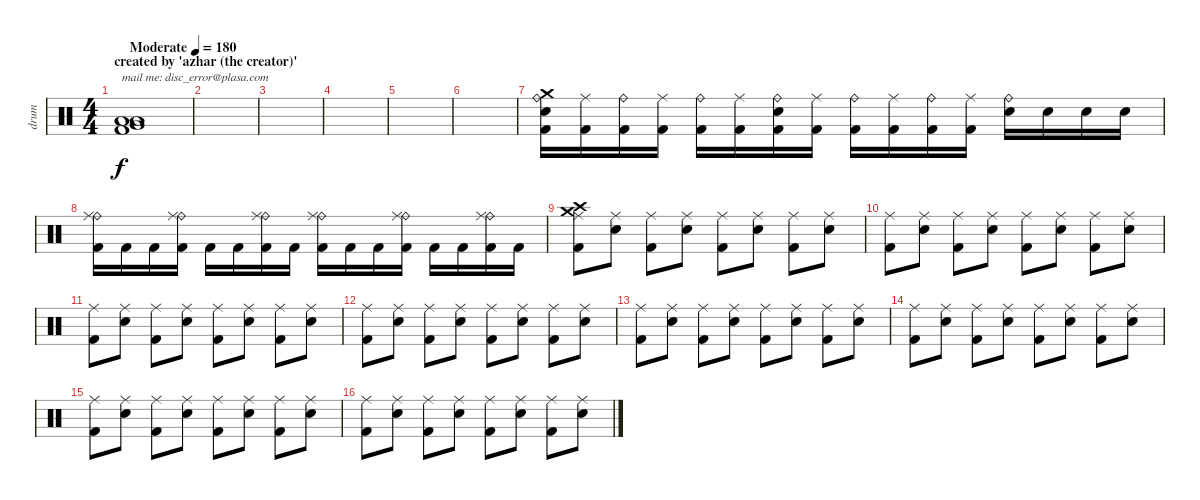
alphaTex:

\track ("drum" "drum") {instrument percussion}
\staff {score}
\articulation defaults
\ts (4 4)
\section ("" "created by 'azhar (the creator)'")
\tempo (180 "Moderate")
\clef neutral
\ks c
("Low Tom (hit)" "Low Floor Tom (hit)" "Very Low Tom (hit)" "Kick (hit) 2").1{txt "mail me: disc_error@plasa.com" dy f} |
|
|
|
|
|
("Crash medium (hit)" "Ride (bell)" "Electric Snare (hit)" "Kick (hit) 2").16 ("Ride (middle)" "Kick (hit) 2").16 ("Ride (bell)" "Kick (hit) 2").16 ("Ride (middle)" "Kick (hit) 2").16 ("Ride (bell)" "Kick (hit) 2").16 ("Ride (middle)" "Kick (hit) 2").16 ("Ride (bell)" "Electric Snare (hit)" "Kick (hit) 2").16 ("Ride (middle)" "Kick (hit) 2").16 ("Ride (bell)" "Kick (hit) 2").16 ("Ride (middle)" "Kick (hit) 2").16 ("Ride (bell)" "Kick (hit) 2").16 ("Ride (middle)" "Kick (hit) 2").16 ("Ride (bell)" "Electric Snare (hit)").16 "Electric Snare (hit)".16 "Electric Snare (hit)".16 "Electric Snare (hit)".16 |
("Ride (bell)" "Ride (middle)" "Kick (hit) 2").16 "Kick (hit) 2".16 "Kick (hit) 2".16 ("Ride (bell)" "Ride (middle)" "Kick (hit) 2").16 "Kick (hit) 2".16 "Kick (hit) 2".16 ("Ride (bell)" "Ride (middle)" "Kick (hit) 2").16 "Kick (hit) 2".16 ("Ride (bell)" "Ride (middle)" "Kick (hit) 2").16 "Kick (hit) 2".16 "Kick (hit) 2".16 ("Ride (bell)" "Ride (middle)" "Kick (hit) 2").16 "Kick (hit) 2".16 "Kick (hit) 2".16 ("Ride (bell)" "Ride (middle)" "Kick (hit) 2").16 "Kick (hit) 2".16 |
("Crash medium (hit)" "Ride (middle)" "Crash high (hit)" "Kick (hit) 2").8 ("Ride (middle)" "Electric Snare (hit)").8 ("Ride (middle)" "Kick (hit) 2").8 ("Ride (middle)" "Electric Snare (hit)").8 ("Ride (middle)" "Kick (hit) 2").8 ("Ride (middle)" "Electric Snare (hit)").8 ("Ride (middle)" "Kick (hit) 2").8 ("Ride (middle)" "Electric Snare (hit)").8 |
("Ride (middle)" "Kick (hit) 2").8 ("Ride (middle)" "Electric Snare (hit)").8 ("Ride (middle)" "Kick (hit) 2").8 ("Ride (middle)" "Electric Snare (hit)").8 ("Ride (middle)" "Kick (hit) 2").8 ("Ride (middle)" "Electric Snare (hit)").8 ("Ride (middle)" "Kick (hit) 2").8 ("Ride (middle)" "Electric Snare (hit)").8 |
("Ride (middle)" "Kick (hit) 2").8 ("Ride (middle)" "Electric Snare (hit)").8 ("Ride (middle)" "Kick (hit) 2").8 ("Ride (middle)" "Electric Snare (hit)").8 ("Ride (middle)" "Kick (hit) 2").8 ("Ride (middle)" "Electric Snare (hit)").8 ("Ride (middle)" "Kick (hit) 2").8 ("Ride (middle)" "Electric Snare (hit)").8 |
("Ride (middle)" "Kick (hit) 2").8 ("Ride (middle)" "Electric Snare (hit)").8 ("Ride (middle)" "Kick (hit) 2").8 ("Ride (middle)" "Electric Snare (hit)").8 ("Ride (middle)" "Kick (hit) 2").8 ("Ride (middle)" "Electric Snare (hit)").8 ("Ride (middle)" "Kick (hit) 2").8 ("Ride (middle)" "Electric Snare (hit)").8 |
("Ride (middle)" "Kick (hit) 2").8 ("Ride (middle)" "Electric Snare (hit)").8 ("Ride (middle)" "Kick (hit) 2").8 ("Ride (middle)" "Electric Snare (hit)").8 ("Ride (middle)" "Kick (hit) 2").8 ("Ride (middle)" "Electric Snare (hit)").8 ("Ride (middle)" "Kick (hit) 2").8 ("Ride (middle)" "Electric Snare (hit)").8 |
("Ride (middle)" "Kick (hit) 2").8 ("Ride (middle)" "Electric Snare (hit)").8 ("Ride (middle)" "Kick (hit) 2").8 ("Ride (middle)" "Electric Snare (hit)").8 ("Ride (middle)" "Kick (hit) 2").8 ("Ride (middle)" "Electric Snare (hit)").8 ("Ride (middle)" "Kick (hit) 2").8 ("Ride (middle)" "Electric Snare (hit)").8 |
("Ride (middle)" "Kick (hit) 2").8 ("Ride (middle)" "Electric Snare (hit)").8 ("Ride (middle)" "Kick (hit) 2").8 ("Ride (middle)" "Electric Snare (hit)").8 ("Ride (middle)" "Kick (hit) 2").8 ("Ride (middle)" "Electric Snare (hit)").8 ("Ride (middle)" "Kick (hit) 2").8 ("Ride (middle)" "Electric Snare (hit)").8 |
("Ride (middle)" "Kick (hit) 2").8 ("Ride (middle)" "Electric Snare (hit)").8 ("Ride (middle)" "Kick (hit) 2").8 ("Ride (middle)" "Electric Snare (hit)").8 ("Ride (middle)" "Kick (hit) 2").8 ("Ride (middle)" "Electric Snare (hit)").8 ("Ride (middle)" "Kick (hit) 2").8 ("Ride (middle)" "Electric Snare (hit)").8
